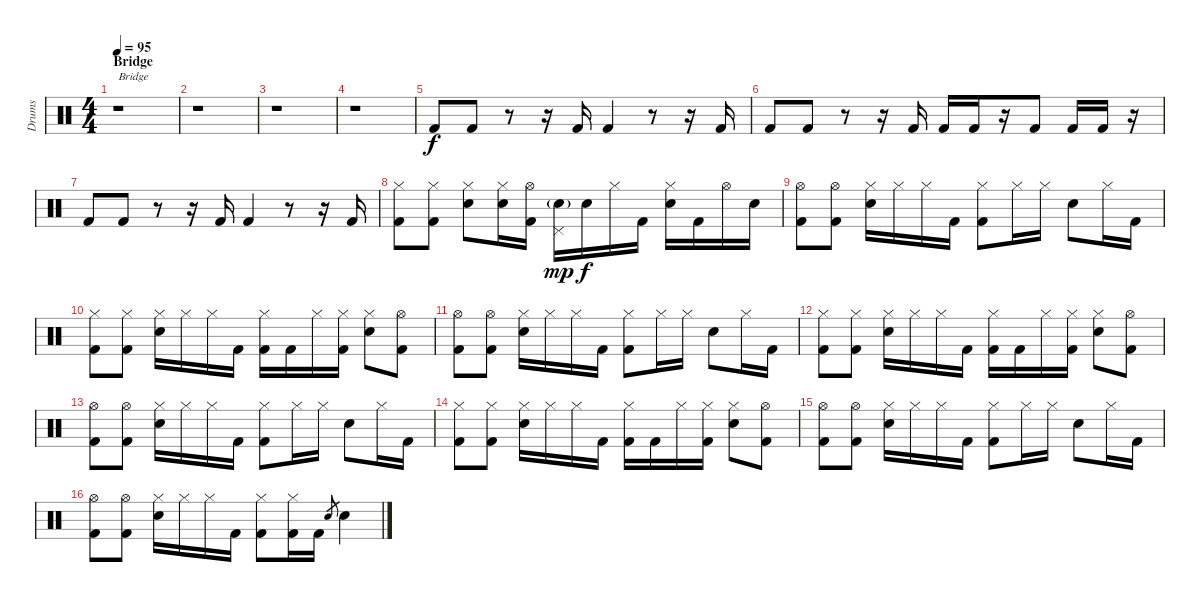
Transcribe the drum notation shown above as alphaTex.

\track ("Drums" "Drums") {instrument percussion}
\staff {score}
\articulation defaults
\ts (4 4)
\section ("" "Bridge")
\tempo 95
\clef neutral
\ks c
r.1{txt "Bridge" dy f} |
r.1 |
r.1 |
r.1 |
"Kick (hit) 2".8 "Kick (hit) 2".8 r.8 r.16 "Kick (hit) 2".16 "Kick (hit) 2".4 r.8 r.16 "Kick (hit) 2".16 |
"Kick (hit) 2".8 "Kick (hit) 2".8 r.8 r.16 "Kick (hit) 2".16 "Kick (hit) 2".16 "Kick (hit) 2".16 r.16 "Kick (hit) 2".8 "Kick (hit) 2".16 "Kick (hit) 2".16 r.16 |
"Kick (hit) 2".8 "Kick (hit) 2".8 r.8 r.16 "Kick (hit) 2".16 "Kick (hit) 2".4 r.8 r.16 "Kick (hit) 2".16 |
("Hi-Hat (closed)" "Kick (hit) 2").8 ("Hi-Hat (closed)" "Kick (hit) 2").8 ("Hi-Hat (closed)" "Electric Snare (hit)").8 ("Hi-Hat (closed)" "Electric Snare (hit)").16 ("Hi-Hat (open)" "Kick (hit) 2").16 ("Electric Snare (hit)"{g} "Pedal Hi-Hat (hit)").16{dy mp} "Electric Snare (hit)".16{dy f} "Hi-Hat (closed)".16 "Kick (hit) 2".16 ("Hi-Hat (closed)" "Electric Snare (hit)").16 "Kick (hit) 2".16 "Hi-Hat (open)".16 "Electric Snare (hit)".16 |
("Hi-Hat (open)" "Kick (hit) 2").8 ("Hi-Hat (open)" "Kick (hit) 2").8 ("Hi-Hat (closed)" "Electric Snare (hit)").16 "Hi-Hat (closed)".16 "Hi-Hat (closed)".16 "Kick (hit) 2".16 ("Hi-Hat (closed)" "Kick (hit) 2").8 "Hi-Hat (closed)".16 "Hi-Hat (closed)".16 "Electric Snare (hit)".8 "Hi-Hat (closed)".16 "Kick (hit) 2".16 |
("Hi-Hat (closed)" "Kick (hit) 2").8 ("Hi-Hat (closed)" "Kick (hit) 2").8 ("Hi-Hat (closed)" "Electric Snare (hit)").16 "Hi-Hat (closed)".16 "Hi-Hat (closed)".16 "Kick (hit) 2".16 ("Hi-Hat (closed)" "Kick (hit) 2").16 "Kick (hit) 2".16 "Hi-Hat (closed)".16 ("Hi-Hat (closed)" "Kick (hit) 2").16 ("Hi-Hat (closed)" "Electric Snare (hit)").8 ("Hi-Hat (open)" "Kick (hit) 2").8 |
("Hi-Hat (open)" "Kick (hit) 2").8 ("Hi-Hat (open)" "Kick (hit) 2").8 ("Hi-Hat (closed)" "Electric Snare (hit)").16 "Hi-Hat (closed)".16 "Hi-Hat (closed)".16 "Kick (hit) 2".16 ("Hi-Hat (closed)" "Kick (hit) 2").8 "Hi-Hat (closed)".16 "Hi-Hat (closed)".16 "Electric Snare (hit)".8 "Hi-Hat (closed)".16 "Kick (hit) 2".16 |
("Hi-Hat (closed)" "Kick (hit) 2").8 ("Hi-Hat (closed)" "Kick (hit) 2").8 ("Hi-Hat (closed)" "Electric Snare (hit)").16 "Hi-Hat (closed)".16 "Hi-Hat (closed)".16 "Kick (hit) 2".16 ("Hi-Hat (closed)" "Kick (hit) 2").16 "Kick (hit) 2".16 "Hi-Hat (closed)".16 ("Hi-Hat (closed)" "Kick (hit) 2").16 ("Hi-Hat (closed)" "Electric Snare (hit)").8 ("Hi-Hat (open)" "Kick (hit) 2").8 |
("Hi-Hat (open)" "Kick (hit) 2").8 ("Hi-Hat (open)" "Kick (hit) 2").8 ("Hi-Hat (closed)" "Electric Snare (hit)").16 "Hi-Hat (closed)".16 "Hi-Hat (closed)".16 "Kick (hit) 2".16 ("Hi-Hat (closed)" "Kick (hit) 2").8 "Hi-Hat (closed)".16 "Hi-Hat (closed)".16 "Electric Snare (hit)".8 "Hi-Hat (closed)".16 "Kick (hit) 2".16 |
("Hi-Hat (closed)" "Kick (hit) 2").8 ("Hi-Hat (closed)" "Kick (hit) 2").8 ("Hi-Hat (closed)" "Electric Snare (hit)").16 "Hi-Hat (closed)".16 "Hi-Hat (closed)".16 "Kick (hit) 2".16 ("Hi-Hat (closed)" "Kick (hit) 2").16 "Kick (hit) 2".16 "Hi-Hat (closed)".16 ("Hi-Hat (closed)" "Kick (hit) 2").16 ("Hi-Hat (closed)" "Electric Snare (hit)").8 ("Hi-Hat (open)" "Kick (hit) 2").8 |
("Hi-Hat (open)" "Kick (hit) 2").8 ("Hi-Hat (open)" "Kick (hit) 2").8 ("Hi-Hat (closed)" "Electric Snare (hit)").16 "Hi-Hat (closed)".16 "Hi-Hat (closed)".16 "Kick (hit) 2".16 ("Hi-Hat (closed)" "Kick (hit) 2").8 "Hi-Hat (closed)".16 "Hi-Hat (closed)".16 "Electric Snare (hit)".8 "Hi-Hat (closed)".16 "Kick (hit) 2".16 |
("Hi-Hat (open)" "Kick (hit) 2").8 ("Hi-Hat (open)" "Kick (hit) 2").8 ("Hi-Hat (closed)" "Electric Snare (hit)").16 "Hi-Hat (closed)".16 "Hi-Hat (closed)".16 "Kick (hit) 2".16 ("Hi-Hat (closed)" "Kick (hit) 2").8 ("Hi-Hat (closed)" "Kick (hit) 2").16 "Kick (hit) 2".16 "Electric Snare (hit)".8{gr} "Electric Snare (hit)".4
